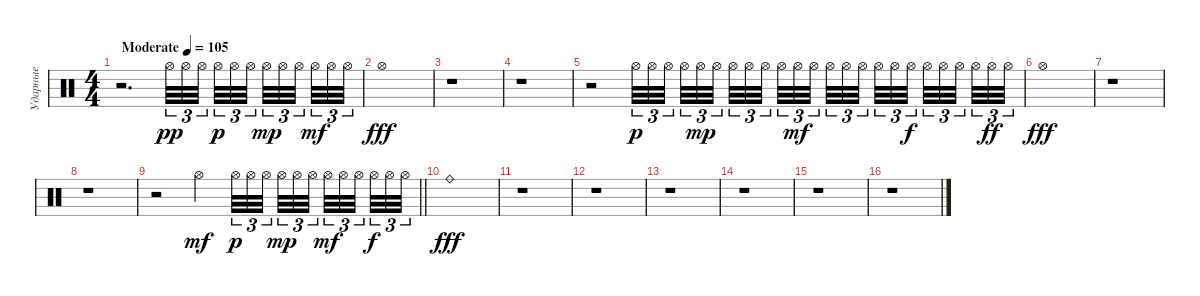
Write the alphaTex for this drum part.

\track ("Ударные" "Ударные") {instrument percussion}
\staff {score}
\articulation defaults
\ts (4 4)
\tempo (105 "Moderate")
\clef neutral
\ks c
r.2{d dy pp} "Hi-Hat (open)".32{tu (3 2)} "Hi-Hat (open)".32{tu (3 2)} "Hi-Hat (open)".32{tu (3 2) beam splitsecondary} "Hi-Hat (open)".32{tu (3 2) dy p} "Hi-Hat (open)".32{tu (3 2)} "Hi-Hat (open)".32{tu (3 2) beam splitsecondary} "Hi-Hat (open)".32{tu (3 2) dy mp} "Hi-Hat (open)".32{tu (3 2)} "Hi-Hat (open)".32{tu (3 2) beam splitsecondary} "Hi-Hat (open)".32{tu (3 2) dy mf} "Hi-Hat (open)".32{tu (3 2)} "Hi-Hat (open)".32{tu (3 2)} |
"Hi-Hat (open)".1{dy fff} |
r.1 |
r.1 |
r.2 "Hi-Hat (open)".32{tu (3 2) dy p} "Hi-Hat (open)".32{tu (3 2)} "Hi-Hat (open)".32{tu (3 2) beam splitsecondary} "Hi-Hat (open)".32{tu (3 2)} "Hi-Hat (open)".32{tu (3 2) dy mp} "Hi-Hat (open)".32{tu (3 2) beam splitsecondary} "Hi-Hat (open)".32{tu (3 2)} "Hi-Hat (open)".32{tu (3 2)} "Hi-Hat (open)".32{tu (3 2) beam splitsecondary} "Hi-Hat (open)".32{tu (3 2)} "Hi-Hat (open)".32{tu (3 2) dy mf} "Hi-Hat (open)".32{tu (3 2)} "Hi-Hat (open)".32{tu (3 2)} "Hi-Hat (open)".32{tu (3 2)} "Hi-Hat (open)".32{tu (3 2) beam splitsecondary} "Hi-Hat (open)".32{tu (3 2)} "Hi-Hat (open)".32{tu (3 2)} "Hi-Hat (open)".32{tu (3 2) dy f beam splitsecondary} "Hi-Hat (open)".32{tu (3 2)} "Hi-Hat (open)".32{tu (3 2)} "Hi-Hat (open)".32{tu (3 2) beam splitsecondary} "Hi-Hat (open)".32{tu (3 2)} "Hi-Hat (open)".32{tu (3 2) dy ff} "Hi-Hat (open)".32{tu (3 2)} |
"Hi-Hat (open)".1{dy fff} |
r.1 |
r.1 |
\barLineRight lightlight
r.2 "Hi-Hat (open)".4{dy mf} "Hi-Hat (open)".32{tu (3 2) dy p} "Hi-Hat (open)".32{tu (3 2)} "Hi-Hat (open)".32{tu (3 2) beam splitsecondary} "Hi-Hat (open)".32{tu (3 2) dy mp} "Hi-Hat (open)".32{tu (3 2)} "Hi-Hat (open)".32{tu (3 2) beam splitsecondary} "Hi-Hat (open)".32{tu (3 2) dy mf} "Hi-Hat (open)".32{tu (3 2)} "Hi-Hat (open)".32{tu (3 2) beam splitsecondary} "Hi-Hat (open)".32{tu (3 2) dy f} "Hi-Hat (open)".32{tu (3 2)} "Hi-Hat (open)".32{tu (3 2)} |
"Ride (bell)".1{dy fff} |
r.1 |
r.1 |
r.1 |
r.1 |
r.1 |
r.1
